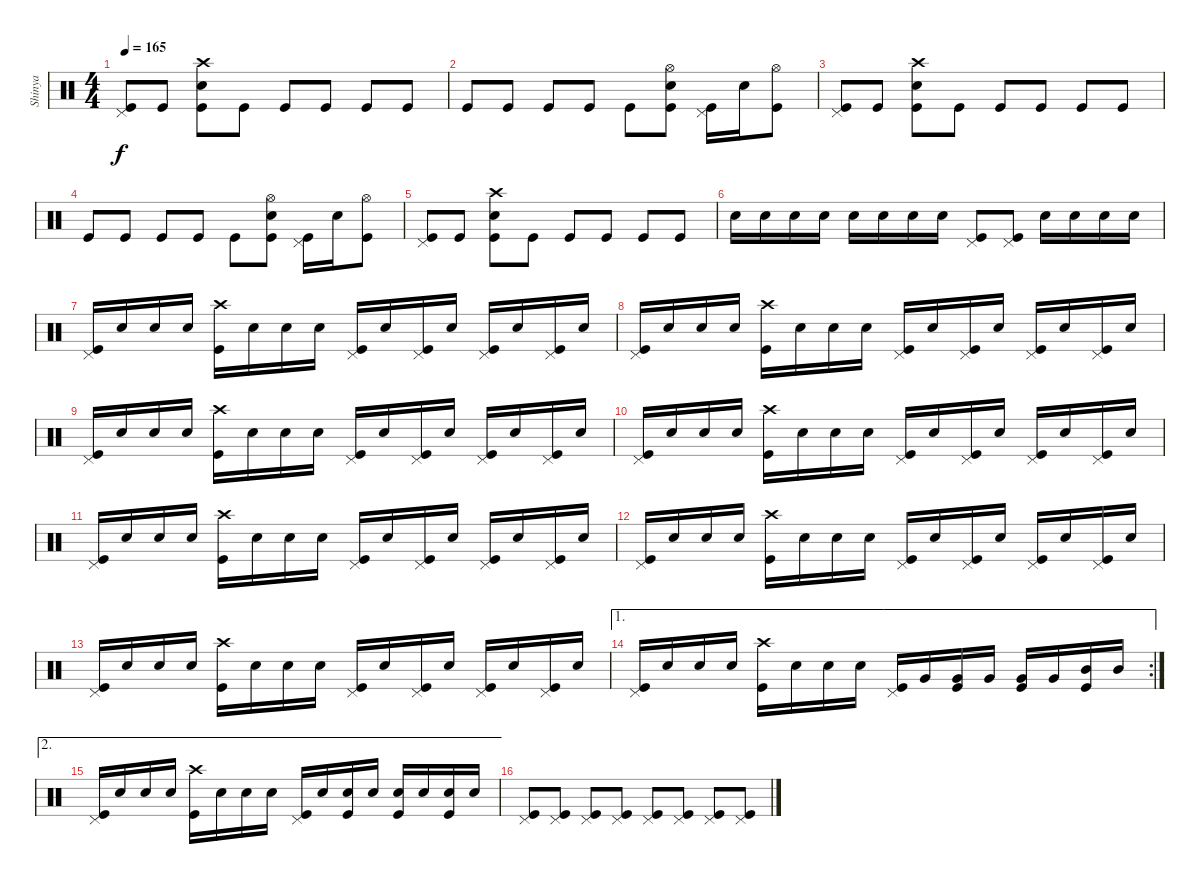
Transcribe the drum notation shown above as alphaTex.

\track ("Shinya" "Shinya") {instrument percussion}
\staff {score}
\articulation defaults
\ts (4 4)
\tempo 165
\clef neutral
\ks c
("Kick (hit)" "Pedal Hi-Hat (hit)").8{dy f} "Kick (hit)".8 ("Kick (hit)" "Electric Snare (hit)" "Crash high (hit)").8 "Kick (hit)".8 "Kick (hit)".8 "Kick (hit)".8 "Kick (hit)".8 "Kick (hit)".8 |
"Kick (hit)".8 "Kick (hit)".8 "Kick (hit)".8 "Kick (hit)".8 "Kick (hit)".8 ("Hi-Hat (open)" "Electric Snare (hit)" "Kick (hit)").8 ("Pedal Hi-Hat (hit)" "Kick (hit)").16 "Electric Snare (hit)".16 ("Hi-Hat (open)" "Kick (hit)").8 |
("Kick (hit)" "Pedal Hi-Hat (hit)").8 "Kick (hit)".8 ("Kick (hit)" "Electric Snare (hit)" "Crash high (hit)").8 "Kick (hit)".8 "Kick (hit)".8 "Kick (hit)".8 "Kick (hit)".8 "Kick (hit)".8 |
"Kick (hit)".8 "Kick (hit)".8 "Kick (hit)".8 "Kick (hit)".8 "Kick (hit)".8 ("Hi-Hat (open)" "Electric Snare (hit)" "Kick (hit)").8 ("Pedal Hi-Hat (hit)" "Kick (hit)").16 "Electric Snare (hit)".16 ("Hi-Hat (open)" "Kick (hit)").8 |
("Kick (hit)" "Pedal Hi-Hat (hit)").8 "Kick (hit)".8 ("Kick (hit)" "Electric Snare (hit)" "Crash high (hit)").8 "Kick (hit)".8 "Kick (hit)".8 "Kick (hit)".8 "Kick (hit)".8 "Kick (hit)".8 |
"Electric Snare (hit)".16 "Electric Snare (hit)".16 "Electric Snare (hit)".16 "Electric Snare (hit)".16 "Electric Snare (hit)".16 "Electric Snare (hit)".16 "Electric Snare (hit)".16 "Electric Snare (hit)".16 ("Pedal Hi-Hat (hit)" "Kick (hit)").8 ("Pedal Hi-Hat (hit)" "Kick (hit)").8 "Electric Snare (hit)".16 "Electric Snare (hit)".16 "Electric Snare (hit)".16 "Electric Snare (hit)".16 |
("Kick (hit)" "Pedal Hi-Hat (hit)").16 "Electric Snare (hit)".16 "Electric Snare (hit)".16 "Electric Snare (hit)".16 ("Kick (hit)" "Crash high (hit)").16 "Electric Snare (hit)".16 "Electric Snare (hit)".16 "Electric Snare (hit)".16 ("Kick (hit)" "Pedal Hi-Hat (hit)").16 "Electric Snare (hit)".16 ("Pedal Hi-Hat (hit)" "Kick (hit)").16 "Electric Snare (hit)".16 ("Kick (hit)" "Pedal Hi-Hat (hit)").16 "Electric Snare (hit)".16 ("Pedal Hi-Hat (hit)" "Kick (hit)").16 "Electric Snare (hit)".16 |
("Kick (hit)" "Pedal Hi-Hat (hit)").16 "Electric Snare (hit)".16 "Electric Snare (hit)".16 "Electric Snare (hit)".16 ("Kick (hit)" "Crash high (hit)").16 "Electric Snare (hit)".16 "Electric Snare (hit)".16 "Electric Snare (hit)".16 ("Kick (hit)" "Pedal Hi-Hat (hit)").16 "Electric Snare (hit)".16 ("Pedal Hi-Hat (hit)" "Kick (hit)").16 "Electric Snare (hit)".16 ("Kick (hit)" "Pedal Hi-Hat (hit)").16 "Electric Snare (hit)".16 ("Pedal Hi-Hat (hit)" "Kick (hit)").16 "Electric Snare (hit)".16 |
("Kick (hit)" "Pedal Hi-Hat (hit)").16 "Electric Snare (hit)".16 "Electric Snare (hit)".16 "Electric Snare (hit)".16 ("Kick (hit)" "Crash high (hit)").16 "Electric Snare (hit)".16 "Electric Snare (hit)".16 "Electric Snare (hit)".16 ("Kick (hit)" "Pedal Hi-Hat (hit)").16 "Electric Snare (hit)".16 ("Pedal Hi-Hat (hit)" "Kick (hit)").16 "Electric Snare (hit)".16 ("Kick (hit)" "Pedal Hi-Hat (hit)").16 "Electric Snare (hit)".16 ("Pedal Hi-Hat (hit)" "Kick (hit)").16 "Electric Snare (hit)".16 |
("Kick (hit)" "Pedal Hi-Hat (hit)").16 "Electric Snare (hit)".16 "Electric Snare (hit)".16 "Electric Snare (hit)".16 ("Kick (hit)" "Crash high (hit)").16 "Electric Snare (hit)".16 "Electric Snare (hit)".16 "Electric Snare (hit)".16 ("Kick (hit)" "Pedal Hi-Hat (hit)").16 "Electric Snare (hit)".16 ("Pedal Hi-Hat (hit)" "Kick (hit)").16 "Electric Snare (hit)".16 ("Kick (hit)" "Pedal Hi-Hat (hit)").16 "Electric Snare (hit)".16 ("Pedal Hi-Hat (hit)" "Kick (hit)").16 "Electric Snare (hit)".16 |
("Kick (hit)" "Pedal Hi-Hat (hit)").16 "Electric Snare (hit)".16 "Electric Snare (hit)".16 "Electric Snare (hit)".16 ("Kick (hit)" "Crash high (hit)").16 "Electric Snare (hit)".16 "Electric Snare (hit)".16 "Electric Snare (hit)".16 ("Kick (hit)" "Pedal Hi-Hat (hit)").16 "Electric Snare (hit)".16 ("Pedal Hi-Hat (hit)" "Kick (hit)").16 "Electric Snare (hit)".16 ("Kick (hit)" "Pedal Hi-Hat (hit)").16 "Electric Snare (hit)".16 ("Pedal Hi-Hat (hit)" "Kick (hit)").16 "Electric Snare (hit)".16 |
("Kick (hit)" "Pedal Hi-Hat (hit)").16 "Electric Snare (hit)".16 "Electric Snare (hit)".16 "Electric Snare (hit)".16 ("Kick (hit)" "Crash high (hit)").16 "Electric Snare (hit)".16 "Electric Snare (hit)".16 "Electric Snare (hit)".16 ("Kick (hit)" "Pedal Hi-Hat (hit)").16 "Electric Snare (hit)".16 ("Pedal Hi-Hat (hit)" "Kick (hit)").16 "Electric Snare (hit)".16 ("Kick (hit)" "Pedal Hi-Hat (hit)").16 "Electric Snare (hit)".16 ("Pedal Hi-Hat (hit)" "Kick (hit)").16 "Electric Snare (hit)".16 |
("Kick (hit)" "Pedal Hi-Hat (hit)").16 "Electric Snare (hit)".16 "Electric Snare (hit)".16 "Electric Snare (hit)".16 ("Kick (hit)" "Crash high (hit)").16 "Electric Snare (hit)".16 "Electric Snare (hit)".16 "Electric Snare (hit)".16 ("Kick (hit)" "Pedal Hi-Hat (hit)").16 "Electric Snare (hit)".16 ("Pedal Hi-Hat (hit)" "Kick (hit)").16 "Electric Snare (hit)".16 ("Kick (hit)" "Pedal Hi-Hat (hit)").16 "Electric Snare (hit)".16 ("Pedal Hi-Hat (hit)" "Kick (hit)").16 "Electric Snare (hit)".16 |
\ae 1
\rc 2
("Kick (hit)" "Pedal Hi-Hat (hit)").16 "Electric Snare (hit)".16 "Electric Snare (hit)".16 "Electric Snare (hit)".16 ("Kick (hit)" "Crash high (hit)").16 "Electric Snare (hit)".16 "Electric Snare (hit)".16 "Electric Snare (hit)".16 ("Kick (hit)" "Pedal Hi-Hat (hit)").16 "Very Low Tom (hit)".16 ("Very Low Tom (hit)" "Kick (hit)").16 "Very Low Tom (hit)".16 ("Kick (hit)" "Very Low Tom (hit)").16 "Very Low Tom (hit)".16 ("Mid Tom (hit)" "Kick (hit)").16 "Mid Tom (hit)".16 |
\ae 2
("Pedal Hi-Hat (hit)" "Kick (hit)").16 "Electric Snare (hit)".16 "Electric Snare (hit)".16 "Electric Snare (hit)".16 ("Crash high (hit)" "Kick (hit)").16 "Electric Snare (hit)".16 "Electric Snare (hit)".16 "Electric Snare (hit)".16 ("Kick (hit)" "Pedal Hi-Hat (hit)").16 "Electric Snare (hit)".16 ("Kick (hit)" "Electric Snare (hit)").16 "Electric Snare (hit)".16 ("Electric Snare (hit)" "Kick (hit)").16 "Electric Snare (hit)".16 ("Kick (hit)" "Electric Snare (hit)").16 "Electric Snare (hit)".16 |
("Pedal Hi-Hat (hit)" "Kick (hit)").8 ("Pedal Hi-Hat (hit)" "Kick (hit)").8 ("Pedal Hi-Hat (hit)" "Kick (hit)").8 ("Pedal Hi-Hat (hit)" "Kick (hit)").8 ("Pedal Hi-Hat (hit)" "Kick (hit)").8 ("Pedal Hi-Hat (hit)" "Kick (hit)").8 ("Pedal Hi-Hat (hit)" "Kick (hit)").8 ("Pedal Hi-Hat (hit)" "Kick (hit)").8
